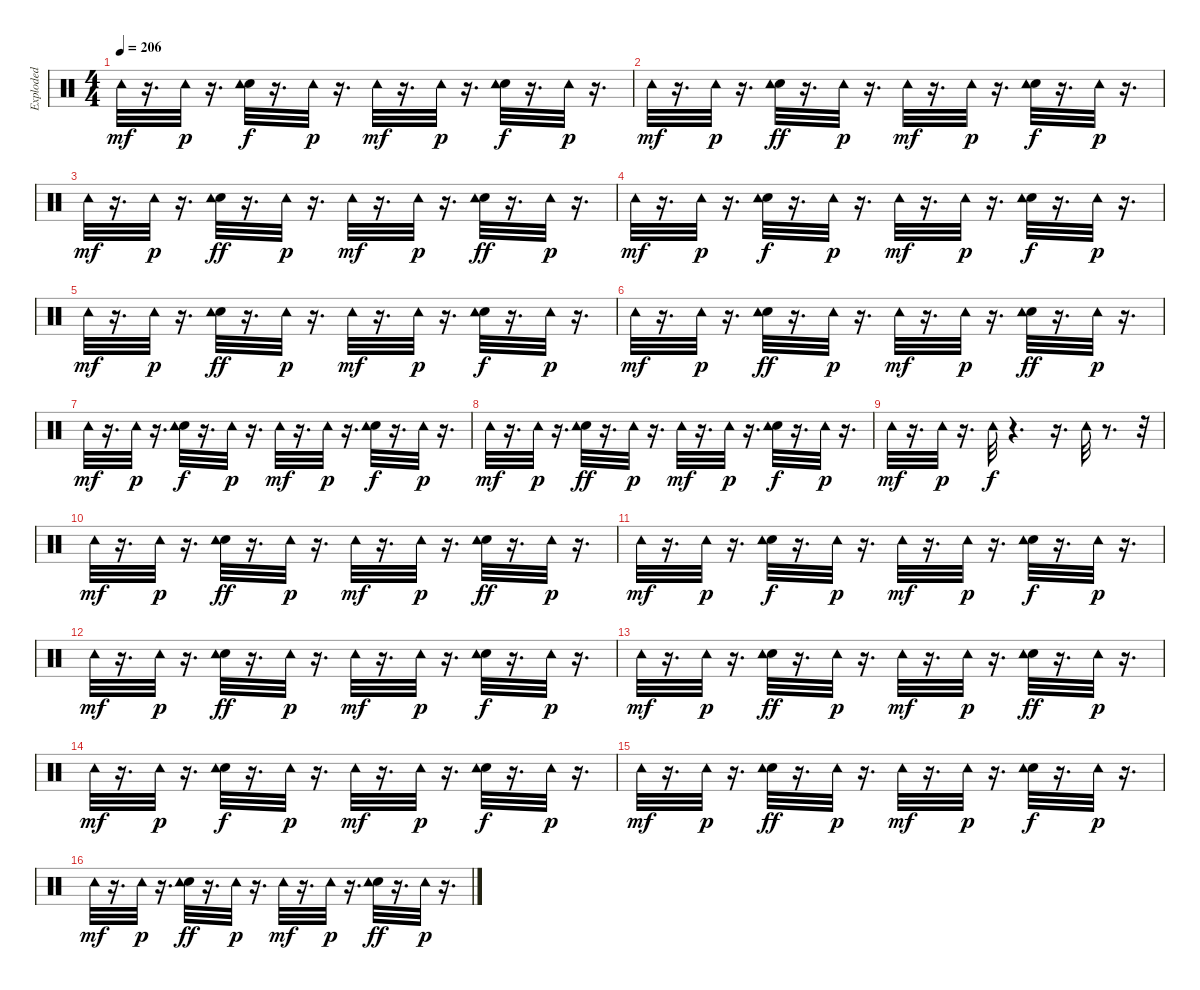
\track ("Exploded" "Exploded") {instrument percussion}
\staff {score}
\articulation defaults
\ts (4 4)
\tempo 206
\clef neutral
\ks c "Tambourine (hit)".32{dy mf}
r.16{d} "Tambourine (hit)".32{dy p} r.16{d} ("Hand Clap (hit)" "Tambourine (hit)").32{dy f} r.16{d} "Tambourine (hit)".32{dy p} r.16{d} "Tambourine (hit)".32{dy mf} r.16{d} "Tambourine (hit)".32{dy p} r.16{d} ("Hand Clap (hit)" "Tambourine (hit)").32{dy f} r.16{d} "Tambourine (hit)".32{dy p} r.16{d} |
"Tambourine (hit)".32{dy mf} r.16{d} "Tambourine (hit)".32{dy p} r.16{d} ("Hand Clap (hit)" "Tambourine (hit)").32{dy ff} r.16{d} "Tambourine (hit)".32{dy p} r.16{d} "Tambourine (hit)".32{dy mf} r.16{d} "Tambourine (hit)".32{dy p} r.16{d} ("Hand Clap (hit)" "Tambourine (hit)").32{dy f} r.16{d} "Tambourine (hit)".32{dy p} r.16{d} |
"Tambourine (hit)".32{dy mf} r.16{d} "Tambourine (hit)".32{dy p} r.16{d} ("Hand Clap (hit)" "Tambourine (hit)").32{dy ff} r.16{d} "Tambourine (hit)".32{dy p} r.16{d} "Tambourine (hit)".32{dy mf} r.16{d} "Tambourine (hit)".32{dy p} r.16{d} ("Hand Clap (hit)" "Tambourine (hit)").32{dy ff} r.16{d} "Tambourine (hit)".32{dy p} r.16{d} |
"Tambourine (hit)".32{dy mf} r.16{d} "Tambourine (hit)".32{dy p} r.16{d} ("Hand Clap (hit)" "Tambourine (hit)").32{dy f} r.16{d} "Tambourine (hit)".32{dy p} r.16{d} "Tambourine (hit)".32{dy mf} r.16{d} "Tambourine (hit)".32{dy p} r.16{d} ("Hand Clap (hit)" "Tambourine (hit)").32{dy f} r.16{d} "Tambourine (hit)".32{dy p} r.16{d} |
"Tambourine (hit)".32{dy mf} r.16{d} "Tambourine (hit)".32{dy p} r.16{d} ("Hand Clap (hit)" "Tambourine (hit)").32{dy ff} r.16{d} "Tambourine (hit)".32{dy p} r.16{d} "Tambourine (hit)".32{dy mf} r.16{d} "Tambourine (hit)".32{dy p} r.16{d} ("Hand Clap (hit)" "Tambourine (hit)").32{dy f} r.16{d} "Tambourine (hit)".32{dy p} r.16{d} |
"Tambourine (hit)".32{dy mf} r.16{d} "Tambourine (hit)".32{dy p} r.16{d} ("Hand Clap (hit)" "Tambourine (hit)").32{dy ff} r.16{d} "Tambourine (hit)".32{dy p} r.16{d} "Tambourine (hit)".32{dy mf} r.16{d} "Tambourine (hit)".32{dy p} r.16{d} ("Hand Clap (hit)" "Tambourine (hit)").32{dy ff} r.16{d} "Tambourine (hit)".32{dy p} r.16{d} |
"Tambourine (hit)".32{dy mf} r.16{d} "Tambourine (hit)".32{dy p} r.16{d} ("Hand Clap (hit)" "Tambourine (hit)").32{dy f} r.16{d} "Tambourine (hit)".32{dy p} r.16{d} "Tambourine (hit)".32{dy mf} r.16{d} "Tambourine (hit)".32{dy p} r.16{d} ("Hand Clap (hit)" "Tambourine (hit)").32{dy f} r.16{d} "Tambourine (hit)".32{dy p} r.16{d} |
"Tambourine (hit)".32{dy mf} r.16{d} "Tambourine (hit)".32{dy p} r.16{d} ("Hand Clap (hit)" "Tambourine (hit)").32{dy ff} r.16{d} "Tambourine (hit)".32{dy p} r.16{d} "Tambourine (hit)".32{dy mf} r.16{d} "Tambourine (hit)".32{dy p} r.16{d} ("Hand Clap (hit)" "Tambourine (hit)").32{dy f} r.16{d} "Tambourine (hit)".32{dy p} r.16{d} |
"Tambourine (hit)".32{dy mf} r.16{d} "Tambourine (hit)".32{dy p} r.16{d} "Tambourine (hit)".32{dy f} r.4{d} r.16{d} "Tambourine (hit)".32 r.8{d} r.32 |
"Tambourine (hit)".32{dy mf} r.16{d} "Tambourine (hit)".32{dy p} r.16{d} ("Hand Clap (hit)" "Tambourine (hit)").32{dy ff} r.16{d} "Tambourine (hit)".32{dy p} r.16{d} "Tambourine (hit)".32{dy mf} r.16{d} "Tambourine (hit)".32{dy p} r.16{d} ("Hand Clap (hit)" "Tambourine (hit)").32{dy ff} r.16{d} "Tambourine (hit)".32{dy p} r.16{d} |
"Tambourine (hit)".32{dy mf} r.16{d} "Tambourine (hit)".32{dy p} r.16{d} ("Hand Clap (hit)" "Tambourine (hit)").32{dy f} r.16{d} "Tambourine (hit)".32{dy p} r.16{d} "Tambourine (hit)".32{dy mf} r.16{d} "Tambourine (hit)".32{dy p} r.16{d} ("Hand Clap (hit)" "Tambourine (hit)").32{dy f} r.16{d} "Tambourine (hit)".32{dy p} r.16{d} |
"Tambourine (hit)".32{dy mf} r.16{d} "Tambourine (hit)".32{dy p} r.16{d} ("Hand Clap (hit)" "Tambourine (hit)").32{dy ff} r.16{d} "Tambourine (hit)".32{dy p} r.16{d} "Tambourine (hit)".32{dy mf} r.16{d} "Tambourine (hit)".32{dy p} r.16{d} ("Hand Clap (hit)" "Tambourine (hit)").32{dy f} r.16{d} "Tambourine (hit)".32{dy p} r.16{d} |
"Tambourine (hit)".32{dy mf} r.16{d} "Tambourine (hit)".32{dy p} r.16{d} ("Hand Clap (hit)" "Tambourine (hit)").32{dy ff} r.16{d} "Tambourine (hit)".32{dy p} r.16{d} "Tambourine (hit)".32{dy mf} r.16{d} "Tambourine (hit)".32{dy p} r.16{d} ("Hand Clap (hit)" "Tambourine (hit)").32{dy ff} r.16{d} "Tambourine (hit)".32{dy p} r.16{d} |
"Tambourine (hit)".32{dy mf} r.16{d} "Tambourine (hit)".32{dy p} r.16{d} ("Hand Clap (hit)" "Tambourine (hit)").32{dy f} r.16{d} "Tambourine (hit)".32{dy p} r.16{d} "Tambourine (hit)".32{dy mf} r.16{d} "Tambourine (hit)".32{dy p} r.16{d} ("Hand Clap (hit)" "Tambourine (hit)").32{dy f} r.16{d} "Tambourine (hit)".32{dy p} r.16{d} |
"Tambourine (hit)".32{dy mf} r.16{d} "Tambourine (hit)".32{dy p} r.16{d} ("Hand Clap (hit)" "Tambourine (hit)").32{dy ff} r.16{d} "Tambourine (hit)".32{dy p} r.16{d} "Tambourine (hit)".32{dy mf} r.16{d} "Tambourine (hit)".32{dy p} r.16{d} ("Hand Clap (hit)" "Tambourine (hit)").32{dy f} r.16{d} "Tambourine (hit)".32{dy p} r.16{d} |
"Tambourine (hit)".32{dy mf} r.16{d} "Tambourine (hit)".32{dy p} r.16{d} ("Hand Clap (hit)" "Tambourine (hit)").32{dy ff} r.16{d} "Tambourine (hit)".32{dy p} r.16{d} "Tambourine (hit)".32{dy mf} r.16{d} "Tambourine (hit)".32{dy p} r.16{d} ("Hand Clap (hit)" "Tambourine (hit)").32{dy ff} r.16{d} "Tambourine (hit)".32{dy p} r.16{d}
